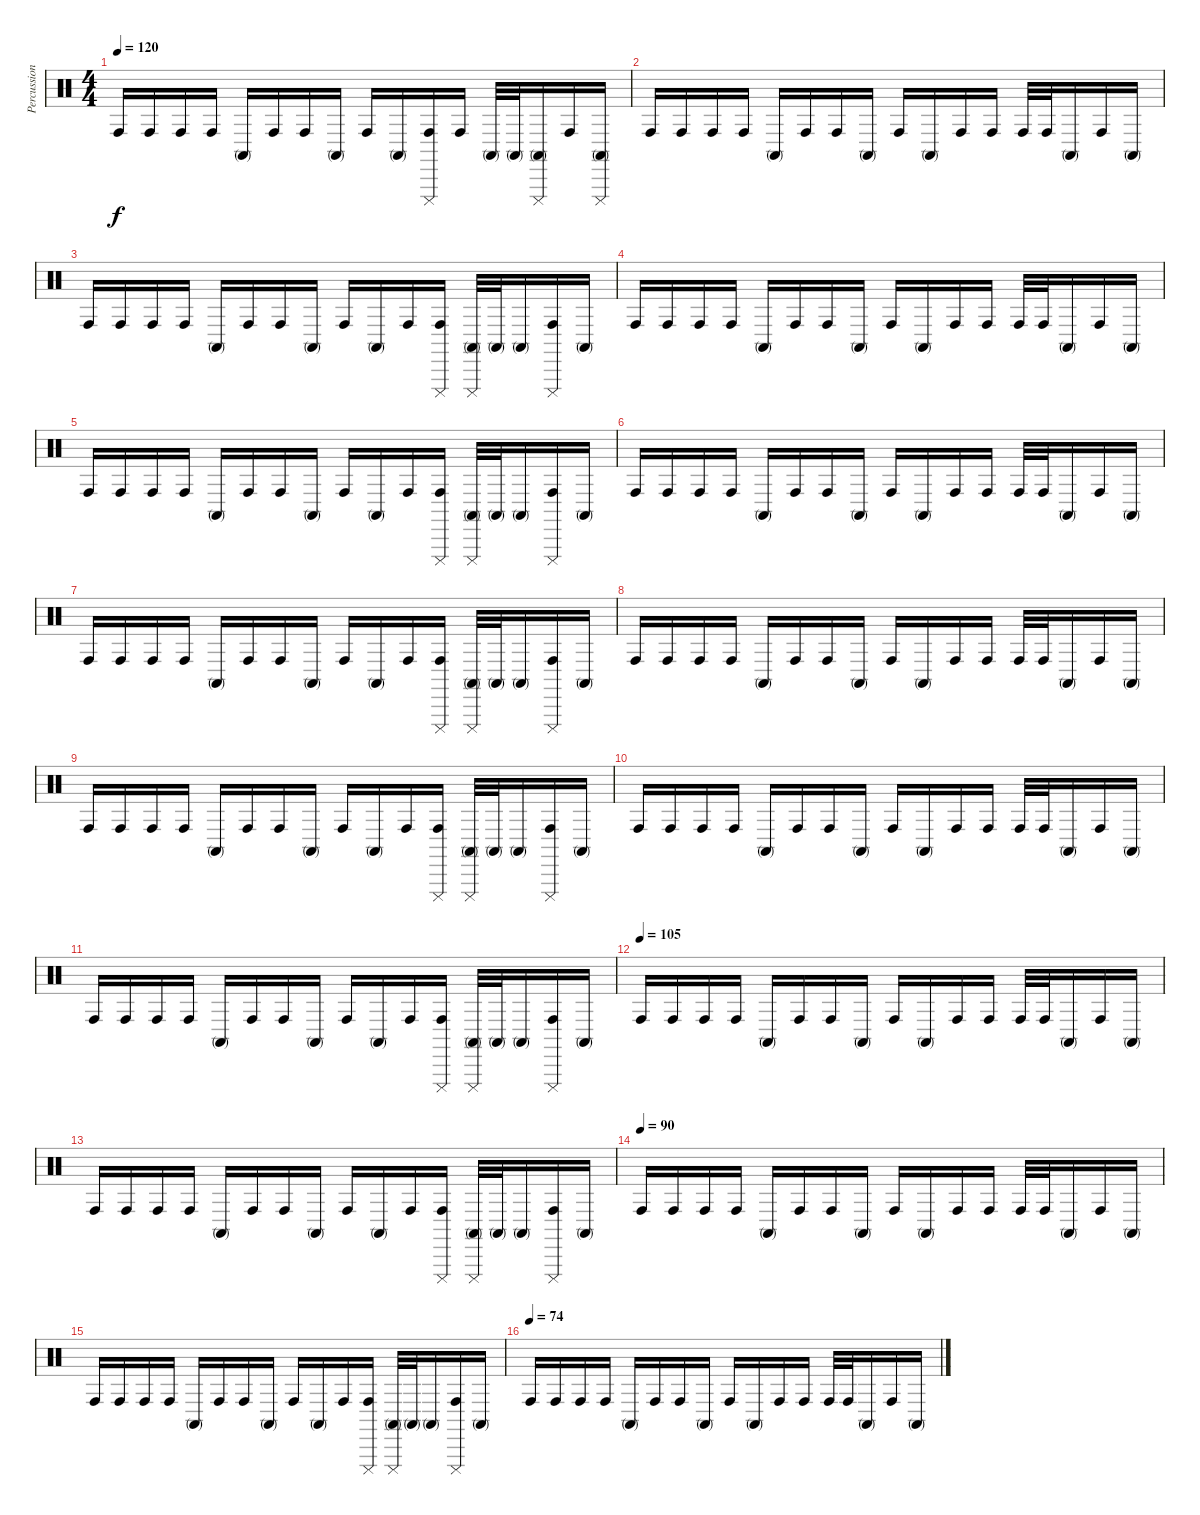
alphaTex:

\track ("Percussion" "Percussion") {instrument percussion}
\staff {score}
\articulation defaults
\ts (4 4)
\tempo 120
\clef neutral
\ks c "Conga high (hit)".16{dy f} "Conga high (hit)".16 "Conga high (hit)".16 "Conga high (hit)".16 "Conga high (mute)".16 "Conga high (hit)".16 "Conga high (hit)".16 "Conga high (mute)".16 "Conga high (hit)".16 "Conga high (mute)".16
("Cuica (mute)" "Conga high (hit)").16 "Conga high (hit)".16 "Conga high (mute)".32 "Conga high (mute)".32 ("Cuica (mute)" "Conga high (mute)").16 "Conga high (hit)".16 ("Cuica (mute)" "Conga high (mute)").16 |
"Conga high (hit)".16 "Conga high (hit)".16 "Conga high (hit)".16 "Conga high (hit)".16 "Conga high (mute)".16 "Conga high (hit)".16 "Conga high (hit)".16 "Conga high (mute)".16 "Conga high (hit)".16 "Conga high (mute)".16 "Conga high (hit)".16 "Conga high (hit)".16 "Conga high (hit)".32 "Conga high (hit)".32 "Conga high (mute)".16 "Conga high (hit)".16 "Conga high (mute)".16 |
"Conga high (hit)".16 "Conga high (hit)".16 "Conga high (hit)".16 "Conga high (hit)".16 "Conga high (mute)".16 "Conga high (hit)".16 "Conga high (hit)".16 "Conga high (mute)".16 "Conga high (hit)".16 "Conga high (mute)".16 "Conga high (hit)".16 ("Cuica (mute)" "Conga high (hit)").16 ("Cuica (mute)" "Conga high (mute)").32 "Conga high (mute)".32 "Conga high (mute)".16 ("Cuica (mute)" "Conga high (hit)").16 "Conga high (mute)".16 |
"Conga high (hit)".16 "Conga high (hit)".16 "Conga high (hit)".16 "Conga high (hit)".16 "Conga high (mute)".16 "Conga high (hit)".16 "Conga high (hit)".16 "Conga high (mute)".16 "Conga high (hit)".16 "Conga high (mute)".16 "Conga high (hit)".16 "Conga high (hit)".16 "Conga high (hit)".32 "Conga high (hit)".32 "Conga high (mute)".16 "Conga high (hit)".16 "Conga high (mute)".16 |
"Conga high (hit)".16 "Conga high (hit)".16 "Conga high (hit)".16 "Conga high (hit)".16 "Conga high (mute)".16 "Conga high (hit)".16 "Conga high (hit)".16 "Conga high (mute)".16 "Conga high (hit)".16 "Conga high (mute)".16 "Conga high (hit)".16 ("Cuica (mute)" "Conga high (hit)").16 ("Cuica (mute)" "Conga high (mute)").32 "Conga high (mute)".32 "Conga high (mute)".16 ("Cuica (mute)" "Conga high (hit)").16 "Conga high (mute)".16 |
"Conga high (hit)".16 "Conga high (hit)".16 "Conga high (hit)".16 "Conga high (hit)".16 "Conga high (mute)".16 "Conga high (hit)".16 "Conga high (hit)".16 "Conga high (mute)".16 "Conga high (hit)".16 "Conga high (mute)".16 "Conga high (hit)".16 "Conga high (hit)".16 "Conga high (hit)".32 "Conga high (hit)".32 "Conga high (mute)".16 "Conga high (hit)".16 "Conga high (mute)".16 |
"Conga high (hit)".16 "Conga high (hit)".16 "Conga high (hit)".16 "Conga high (hit)".16 "Conga high (mute)".16 "Conga high (hit)".16 "Conga high (hit)".16 "Conga high (mute)".16 "Conga high (hit)".16 "Conga high (mute)".16 "Conga high (hit)".16 ("Cuica (mute)" "Conga high (hit)").16 ("Cuica (mute)" "Conga high (mute)").32 "Conga high (mute)".32 "Conga high (mute)".16 ("Cuica (mute)" "Conga high (hit)").16 "Conga high (mute)".16 |
"Conga high (hit)".16 "Conga high (hit)".16 "Conga high (hit)".16 "Conga high (hit)".16 "Conga high (mute)".16 "Conga high (hit)".16 "Conga high (hit)".16 "Conga high (mute)".16 "Conga high (hit)".16 "Conga high (mute)".16 "Conga high (hit)".16 "Conga high (hit)".16 "Conga high (hit)".32 "Conga high (hit)".32 "Conga high (mute)".16 "Conga high (hit)".16 "Conga high (mute)".16 |
"Conga high (hit)".16 "Conga high (hit)".16 "Conga high (hit)".16 "Conga high (hit)".16 "Conga high (mute)".16 "Conga high (hit)".16 "Conga high (hit)".16 "Conga high (mute)".16 "Conga high (hit)".16 "Conga high (mute)".16 "Conga high (hit)".16 ("Cuica (mute)" "Conga high (hit)").16 ("Cuica (mute)" "Conga high (mute)").32 "Conga high (mute)".32 "Conga high (mute)".16 ("Cuica (mute)" "Conga high (hit)").16 "Conga high (mute)".16 |
"Conga high (hit)".16 "Conga high (hit)".16 "Conga high (hit)".16 "Conga high (hit)".16 "Conga high (mute)".16 "Conga high (hit)".16 "Conga high (hit)".16 "Conga high (mute)".16 "Conga high (hit)".16 "Conga high (mute)".16 "Conga high (hit)".16 "Conga high (hit)".16 "Conga high (hit)".32 "Conga high (hit)".32 "Conga high (mute)".16 "Conga high (hit)".16 "Conga high (mute)".16 |
"Conga high (hit)".16 "Conga high (hit)".16 "Conga high (hit)".16 "Conga high (hit)".16 "Conga high (mute)".16 "Conga high (hit)".16 "Conga high (hit)".16 "Conga high (mute)".16 "Conga high (hit)".16 "Conga high (mute)".16 "Conga high (hit)".16 ("Cuica (mute)" "Conga high (hit)").16 ("Cuica (mute)" "Conga high (mute)").32 "Conga high (mute)".32 "Conga high (mute)".16 ("Cuica (mute)" "Conga high (hit)").16 "Conga high (mute)".16 |
\tempo (105)
"Conga high (hit)".16 "Conga high (hit)".16 "Conga high (hit)".16 "Conga high (hit)".16 "Conga high (mute)".16 "Conga high (hit)".16 "Conga high (hit)".16 "Conga high (mute)".16 "Conga high (hit)".16 "Conga high (mute)".16 "Conga high (hit)".16 "Conga high (hit)".16 "Conga high (hit)".32 "Conga high (hit)".32 "Conga high (mute)".16 "Conga high (hit)".16 "Conga high (mute)".16 |
"Conga high (hit)".16 "Conga high (hit)".16 "Conga high (hit)".16 "Conga high (hit)".16 "Conga high (mute)".16 "Conga high (hit)".16 "Conga high (hit)".16 "Conga high (mute)".16 "Conga high (hit)".16 "Conga high (mute)".16 "Conga high (hit)".16 ("Cuica (mute)" "Conga high (hit)").16 ("Cuica (mute)" "Conga high (mute)").32 "Conga high (mute)".32 "Conga high (mute)".16 ("Cuica (mute)" "Conga high (hit)").16 "Conga high (mute)".16 |
\tempo (90)
"Conga high (hit)".16 "Conga high (hit)".16 "Conga high (hit)".16 "Conga high (hit)".16 "Conga high (mute)".16 "Conga high (hit)".16 "Conga high (hit)".16 "Conga high (mute)".16 "Conga high (hit)".16 "Conga high (mute)".16 "Conga high (hit)".16 "Conga high (hit)".16 "Conga high (hit)".32 "Conga high (hit)".32 "Conga high (mute)".16 "Conga high (hit)".16 "Conga high (mute)".16 |
"Conga high (hit)".16 "Conga high (hit)".16 "Conga high (hit)".16 "Conga high (hit)".16 "Conga high (mute)".16 "Conga high (hit)".16 "Conga high (hit)".16 "Conga high (mute)".16 "Conga high (hit)".16 "Conga high (mute)".16 "Conga high (hit)".16 ("Cuica (mute)" "Conga high (hit)").16 ("Cuica (mute)" "Conga high (mute)").32 "Conga high (mute)".32 "Conga high (mute)".16 ("Cuica (mute)" "Conga high (hit)").16 "Conga high (mute)".16 |
\tempo (74)
"Conga high (hit)".16 "Conga high (hit)".16 "Conga high (hit)".16 "Conga high (hit)".16 "Conga high (mute)".16 "Conga high (hit)".16 "Conga high (hit)".16 "Conga high (mute)".16 "Conga high (hit)".16 "Conga high (mute)".16 "Conga high (hit)".16 "Conga high (hit)".16 "Conga high (hit)".32 "Conga high (hit)".32 "Conga high (mute)".16 "Conga high (hit)".16 "Conga high (mute)".16
